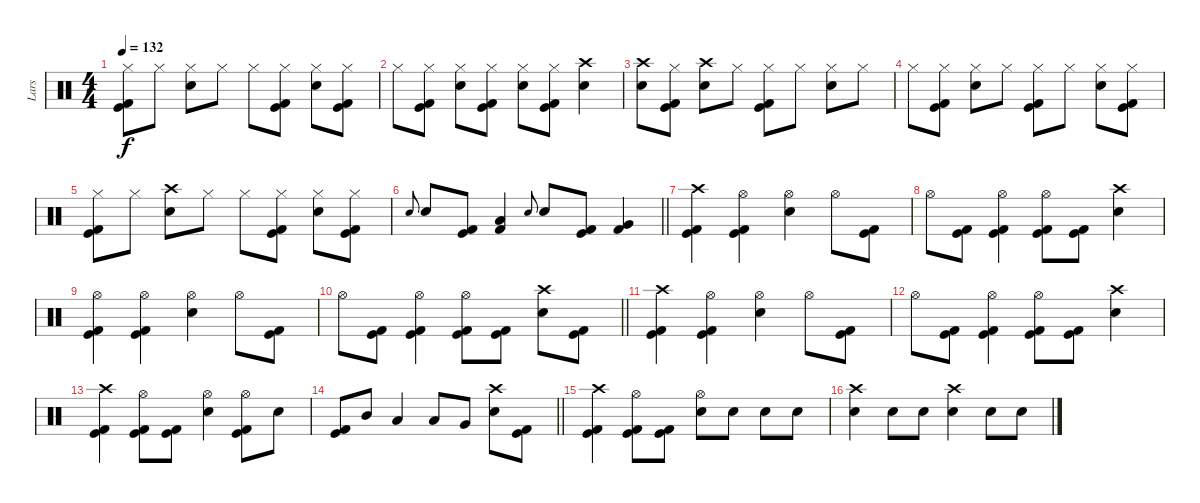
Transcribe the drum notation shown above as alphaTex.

\track ("Lars" "Lars") {instrument percussion}
\staff {score}
\articulation defaults
\ts (4 4)
\tempo 132
\clef neutral
\ks c
("Hi-Hat (closed)" "Kick (hit)" "Kick (hit) 2").8{dy f} "Hi-Hat (closed)".8 ("Hi-Hat (closed)" "Electric Snare (hit)").8 "Hi-Hat (closed)".8 "Hi-Hat (closed)".8 ("Hi-Hat (closed)" "Kick (hit)" "Kick (hit) 2").8 ("Hi-Hat (closed)" "Electric Snare (hit)").8 ("Hi-Hat (closed)" "Kick (hit)" "Kick (hit) 2").8 |
"Hi-Hat (closed)".8 ("Hi-Hat (closed)" "Kick (hit)" "Kick (hit) 2").8 ("Hi-Hat (closed)" "Electric Snare (hit)").8 ("Hi-Hat (closed)" "Kick (hit)" "Kick (hit) 2").8 ("Hi-Hat (closed)" "Electric Snare (hit)").8 ("Hi-Hat (closed)" "Kick (hit)" "Kick (hit) 2").8 ("Crash high (hit)" "Electric Snare (hit)").4 |
("Crash high (hit)" "Electric Snare (hit)").8 ("Hi-Hat (closed)" "Kick (hit)" "Kick (hit) 2").8 ("Crash high (hit)" "Electric Snare (hit)").8 "Hi-Hat (closed)".8 ("Hi-Hat (closed)" "Kick (hit)" "Kick (hit) 2").8 "Hi-Hat (closed)".8 ("Hi-Hat (closed)" "Electric Snare (hit)").8 "Hi-Hat (closed)".8 |
"Hi-Hat (closed)".8 ("Hi-Hat (closed)" "Kick (hit)" "Kick (hit) 2").8 ("Hi-Hat (closed)" "Electric Snare (hit)").8 "Hi-Hat (closed)".8 ("Hi-Hat (closed)" "Kick (hit)" "Kick (hit) 2").8 "Hi-Hat (closed)".8 ("Hi-Hat (closed)" "Electric Snare (hit)").8 ("Hi-Hat (closed)" "Kick (hit)" "Kick (hit) 2").8 |
("Hi-Hat (closed)" "Kick (hit)" "Kick (hit) 2").8 "Hi-Hat (closed)".8 ("Crash high (hit)" "Electric Snare (hit)").8 "Hi-Hat (closed)".8 "Hi-Hat (closed)".8 ("Hi-Hat (closed)" "Kick (hit)" "Kick (hit) 2").8 ("Hi-Hat (closed)" "Electric Snare (hit)").8 ("Hi-Hat (closed)" "Kick (hit)" "Kick (hit) 2").8 |
\barLineRight lightlight "Electric Snare (hit)".8{gr onbeat} "Electric Snare (hit)".8
("Kick (hit)" "Kick (hit) 2").8 ("Kick (hit) 2" "Low Tom (hit)").4 "Electric Snare (hit)".8{gr onbeat} "Electric Snare (hit)".8 ("Kick (hit)" "Kick (hit) 2").8 ("Kick (hit) 2" "Very Low Tom (hit)").4 |
\section ("" "")
("Crash high (hit)" "Kick (hit)" "Kick (hit) 2").4 ("Hi-Hat (open)" "Kick (hit)" "Kick (hit) 2").4 ("Hi-Hat (open)" "Electric Snare (hit)").4 "Hi-Hat (open)".8 ("Kick (hit)" "Kick (hit) 2").8 |
"Hi-Hat (open)".8 ("Kick (hit)" "Kick (hit) 2").8 ("Hi-Hat (open)" "Kick (hit)" "Kick (hit) 2").4 ("Hi-Hat (open)" "Kick (hit)" "Kick (hit) 2").8 ("Kick (hit)" "Kick (hit) 2").8 ("Crash high (hit)" "Electric Snare (hit)").4 |
("Hi-Hat (open)" "Kick (hit)" "Kick (hit) 2").4 ("Hi-Hat (open)" "Kick (hit)" "Kick (hit) 2").4 ("Hi-Hat (open)" "Electric Snare (hit)").4 "Hi-Hat (open)".8 ("Kick (hit)" "Kick (hit) 2").8 |
\barLineRight lightlight "Hi-Hat (open)".8
("Kick (hit)" "Kick (hit) 2").8 ("Hi-Hat (open)" "Kick (hit)" "Kick (hit) 2").4 ("Hi-Hat (open)" "Kick (hit)" "Kick (hit) 2").8 ("Kick (hit)" "Kick (hit) 2").8 ("Crash high (hit)" "Electric Snare (hit)").8 ("Kick (hit)" "Kick (hit) 2").8 |
\section ("" "")
("Crash high (hit)" "Kick (hit)" "Kick (hit) 2").4 ("Hi-Hat (open)" "Kick (hit)" "Kick (hit) 2").4 ("Hi-Hat (open)" "Electric Snare (hit)").4 "Hi-Hat (open)".8 ("Kick (hit)" "Kick (hit) 2").8 |
"Hi-Hat (open)".8 ("Kick (hit)" "Kick (hit) 2").8 ("Hi-Hat (open)" "Kick (hit)" "Kick (hit) 2").4 ("Hi-Hat (open)" "Kick (hit)" "Kick (hit) 2").8 ("Kick (hit)" "Kick (hit) 2").8 ("Crash high (hit)" "Electric Snare (hit)").4 |
("Crash high (hit)" "Kick (hit)" "Kick (hit) 2").4 ("Hi-Hat (open)" "Kick (hit)" "Kick (hit) 2").8 ("Kick (hit)" "Kick (hit) 2").8 ("Hi-Hat (open)" "Electric Snare (hit)").4 ("Hi-Hat (open)" "Kick (hit)" "Kick (hit) 2").8 "Electric Snare (hit)".8 |
\barLineRight lightlight
("Kick (hit)" "Kick (hit) 2").8 "Mid Tom (hit)".8 "Low Tom (hit)".4 "Low Tom (hit)".8 "Very Low Tom (hit)".8 ("Crash high (hit)" "Electric Snare (hit)").8 ("Kick (hit)" "Kick (hit) 2").8 |
("Crash high (hit)" "Kick (hit)" "Kick (hit) 2").4 ("Hi-Hat (open)" "Kick (hit)" "Kick (hit) 2").8 ("Kick (hit)" "Kick (hit) 2").8 ("Hi-Hat (open)" "Electric Snare (hit)").8 "Electric Snare (hit)".8 "Electric Snare (hit)".8 "Electric Snare (hit)".8 |
("Crash high (hit)" "Electric Snare (hit)").4 "Electric Snare (hit)".8 "Electric Snare (hit)".8 ("Crash high (hit)" "Electric Snare (hit)").4 "Electric Snare (hit)".8 "Electric Snare (hit)".8
